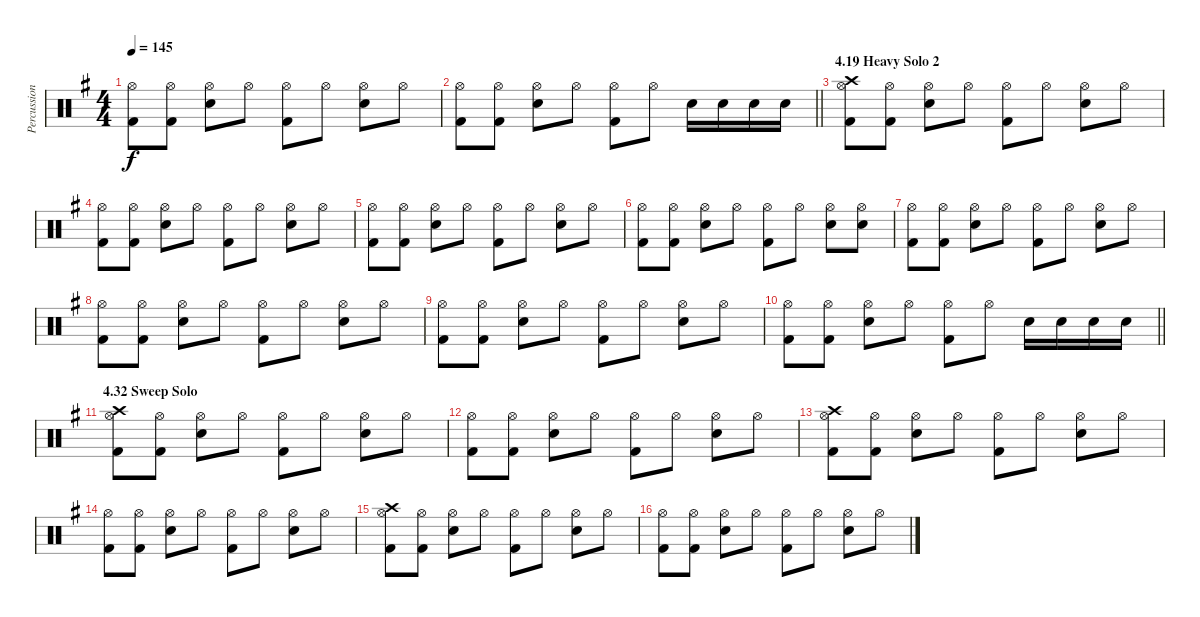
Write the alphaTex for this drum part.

\track ("Percussion" "Percussion") {instrument percussion}
\staff {score}
\articulation defaults
\ts (4 4)
\tempo 145
\clef neutral
\ks eminor
("Hi-Hat (open)" "Kick (hit) 2").8{dy f} ("Hi-Hat (open)" "Kick (hit) 2").8 ("Hi-Hat (open)" "Electric Snare (hit)").8 "Hi-Hat (open)".8 ("Hi-Hat (open)" "Kick (hit) 2").8 "Hi-Hat (open)".8 ("Hi-Hat (open)" "Electric Snare (hit)").8 "Hi-Hat (open)".8 |
\barLineRight lightlight
("Hi-Hat (open)" "Kick (hit) 2").8 ("Hi-Hat (open)" "Kick (hit) 2").8 ("Hi-Hat (open)" "Electric Snare (hit)").8 "Hi-Hat (open)".8 ("Hi-Hat (open)" "Kick (hit) 2").8 "Hi-Hat (open)".8 "Electric Snare (hit)".16 "Electric Snare (hit)".16 "Electric Snare (hit)".16 "Electric Snare (hit)".16 |
\section ("" "4.19 Heavy Solo 2")
("Crash high (hit)" "Hi-Hat (open)" "Kick (hit) 2").8 ("Hi-Hat (open)" "Kick (hit) 2").8 ("Hi-Hat (open)" "Electric Snare (hit)").8 "Hi-Hat (open)".8 ("Hi-Hat (open)" "Kick (hit) 2").8 "Hi-Hat (open)".8 ("Hi-Hat (open)" "Electric Snare (hit)").8 "Hi-Hat (open)".8 |
("Hi-Hat (open)" "Kick (hit) 2").8 ("Hi-Hat (open)" "Kick (hit) 2").8 ("Hi-Hat (open)" "Electric Snare (hit)").8 "Hi-Hat (open)".8 ("Hi-Hat (open)" "Kick (hit) 2").8 "Hi-Hat (open)".8 ("Hi-Hat (open)" "Electric Snare (hit)").8 "Hi-Hat (open)".8 |
("Hi-Hat (open)" "Kick (hit) 2").8 ("Hi-Hat (open)" "Kick (hit) 2").8 ("Hi-Hat (open)" "Electric Snare (hit)").8 "Hi-Hat (open)".8 ("Hi-Hat (open)" "Kick (hit) 2").8 "Hi-Hat (open)".8 ("Hi-Hat (open)" "Electric Snare (hit)").8 "Hi-Hat (open)".8 |
("Hi-Hat (open)" "Kick (hit) 2").8 ("Hi-Hat (open)" "Kick (hit) 2").8 ("Hi-Hat (open)" "Electric Snare (hit)").8 "Hi-Hat (open)".8 ("Hi-Hat (open)" "Kick (hit) 2").8 "Hi-Hat (open)".8 ("Hi-Hat (open)" "Electric Snare (hit)").8 ("Hi-Hat (open)" "Electric Snare (hit)").8 |
("Hi-Hat (open)" "Kick (hit) 2").8 ("Hi-Hat (open)" "Kick (hit) 2").8 ("Hi-Hat (open)" "Electric Snare (hit)").8 "Hi-Hat (open)".8 ("Hi-Hat (open)" "Kick (hit) 2").8 "Hi-Hat (open)".8 ("Hi-Hat (open)" "Electric Snare (hit)").8 "Hi-Hat (open)".8 |
("Hi-Hat (open)" "Kick (hit) 2").8 ("Hi-Hat (open)" "Kick (hit) 2").8 ("Hi-Hat (open)" "Electric Snare (hit)").8 "Hi-Hat (open)".8 ("Hi-Hat (open)" "Kick (hit) 2").8 "Hi-Hat (open)".8 ("Hi-Hat (open)" "Electric Snare (hit)").8 "Hi-Hat (open)".8 |
("Hi-Hat (open)" "Kick (hit) 2").8 ("Hi-Hat (open)" "Kick (hit) 2").8 ("Hi-Hat (open)" "Electric Snare (hit)").8 "Hi-Hat (open)".8 ("Hi-Hat (open)" "Kick (hit) 2").8 "Hi-Hat (open)".8 ("Hi-Hat (open)" "Electric Snare (hit)").8 "Hi-Hat (open)".8 |
\barLineRight lightlight
("Hi-Hat (open)" "Kick (hit) 2").8 ("Hi-Hat (open)" "Kick (hit) 2").8 ("Hi-Hat (open)" "Electric Snare (hit)").8 "Hi-Hat (open)".8 ("Hi-Hat (open)" "Kick (hit) 2").8 "Hi-Hat (open)".8 "Electric Snare (hit)".16 "Electric Snare (hit)".16 "Electric Snare (hit)".16 "Electric Snare (hit)".16 |
\section ("" "4.32 Sweep Solo")
("Crash high (hit)" "Hi-Hat (open)" "Kick (hit) 2").8 ("Hi-Hat (open)" "Kick (hit) 2").8 ("Hi-Hat (open)" "Electric Snare (hit)").8 "Hi-Hat (open)".8 ("Hi-Hat (open)" "Kick (hit) 2").8 "Hi-Hat (open)".8 ("Hi-Hat (open)" "Electric Snare (hit)").8 "Hi-Hat (open)".8 |
("Hi-Hat (open)" "Kick (hit) 2").8 ("Hi-Hat (open)" "Kick (hit) 2").8 ("Hi-Hat (open)" "Electric Snare (hit)").8 "Hi-Hat (open)".8 ("Hi-Hat (open)" "Kick (hit) 2").8 "Hi-Hat (open)".8 ("Hi-Hat (open)" "Electric Snare (hit)").8 "Hi-Hat (open)".8 |
("Crash high (hit)" "Hi-Hat (open)" "Kick (hit) 2").8 ("Hi-Hat (open)" "Kick (hit) 2").8 ("Hi-Hat (open)" "Electric Snare (hit)").8 "Hi-Hat (open)".8 ("Hi-Hat (open)" "Kick (hit) 2").8 "Hi-Hat (open)".8 ("Hi-Hat (open)" "Electric Snare (hit)").8 "Hi-Hat (open)".8 |
("Hi-Hat (open)" "Kick (hit) 2").8 ("Hi-Hat (open)" "Kick (hit) 2").8 ("Hi-Hat (open)" "Electric Snare (hit)").8 "Hi-Hat (open)".8 ("Hi-Hat (open)" "Kick (hit) 2").8 "Hi-Hat (open)".8 ("Hi-Hat (open)" "Electric Snare (hit)").8 "Hi-Hat (open)".8 |
("Crash high (hit)" "Hi-Hat (open)" "Kick (hit) 2").8 ("Hi-Hat (open)" "Kick (hit) 2").8 ("Hi-Hat (open)" "Electric Snare (hit)").8 "Hi-Hat (open)".8 ("Hi-Hat (open)" "Kick (hit) 2").8 "Hi-Hat (open)".8 ("Hi-Hat (open)" "Electric Snare (hit)").8 "Hi-Hat (open)".8 |
("Hi-Hat (open)" "Kick (hit) 2").8 ("Hi-Hat (open)" "Kick (hit) 2").8 ("Hi-Hat (open)" "Electric Snare (hit)").8 "Hi-Hat (open)".8 ("Hi-Hat (open)" "Kick (hit) 2").8 "Hi-Hat (open)".8 ("Hi-Hat (open)" "Electric Snare (hit)").8 "Hi-Hat (open)".8
